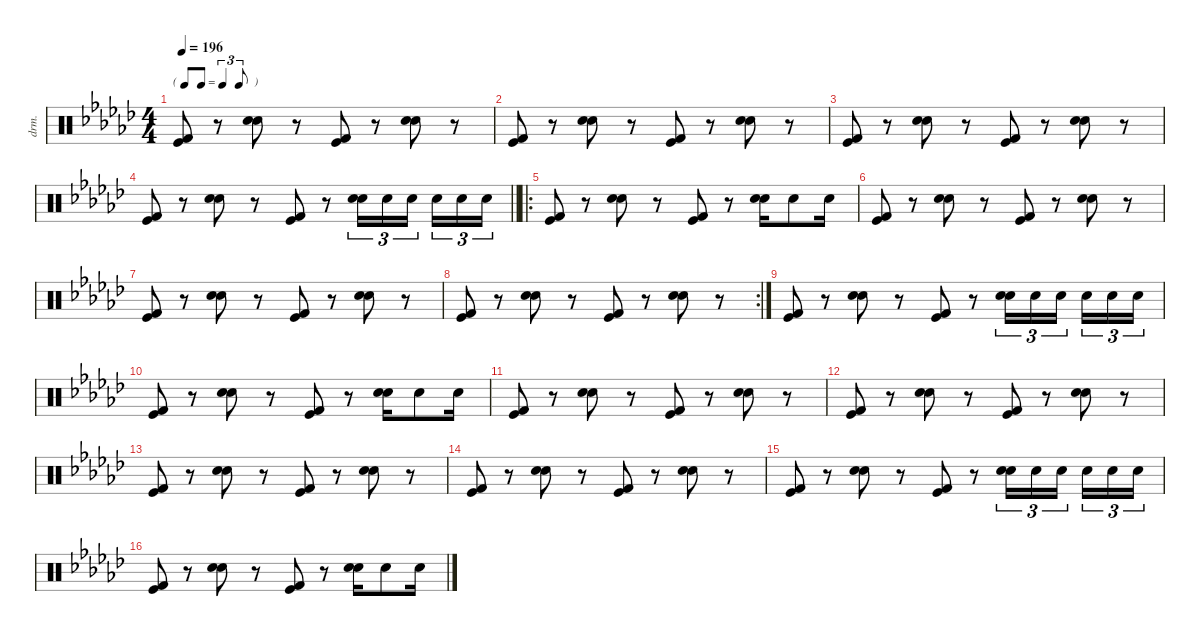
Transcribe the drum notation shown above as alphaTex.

\defaultSystemsLayout 4
\hideDynamics
\bracketExtendMode nobrackets
\otherSystemsTrackNameOrientation horizontal
\track ("Percussions" "drm.") {defaultSystemsLayout 4 instrument percussion}
\staff {score}
\articulation defaults
\ts (4 4)
\tf triplet8th
\tempo 196
\clef neutral
\ks gb
("Kick (hit) 2"{acc forcenatural} "Kick (hit)"{acc forcenatural}).8{dy f beam Up} r.8{beam Up} ("Snare (hit) 2"{acc forcenatural} "Snare (hit) 2"{acc forcenatural}).8{beam Down} r.8{beam Down} ("Kick (hit) 2"{acc forcenatural} "Kick (hit)"{acc forcenatural}).8{beam Up} r.8{beam Up} ("Snare (hit) 2"{acc forcenatural} "Snare (hit) 2"{acc forcenatural}).8{beam Down} r.8{beam Down} |
("Kick (hit) 2"{acc forcenatural} "Kick (hit)"{acc forcenatural}).8{beam Up} r.8{beam Up} ("Snare (hit) 2"{acc forcenatural} "Snare (hit) 2"{acc forcenatural}).8{beam Down} r.8{beam Down} ("Kick (hit) 2"{acc forcenatural} "Kick (hit)"{acc forcenatural}).8{beam Up} r.8{beam Up} ("Snare (hit) 2"{acc forcenatural} "Snare (hit) 2"{acc forcenatural}).8{beam Down} r.8{beam Down} |
("Kick (hit) 2"{acc forcenatural} "Kick (hit)"{acc forcenatural}).8{beam Up} r.8{beam Up} ("Snare (hit) 2"{acc forcenatural} "Snare (hit) 2"{acc forcenatural}).8{beam Down} r.8{beam Down} ("Kick (hit) 2"{acc forcenatural} "Kick (hit)"{acc forcenatural}).8{beam Up} r.8{beam Up} ("Snare (hit) 2"{acc forcenatural} "Snare (hit) 2"{acc forcenatural}).8{beam Down} r.8{beam Down} |
\barLineRight lightlight
("Kick (hit) 2"{acc forcenatural} "Kick (hit)"{acc forcenatural}).8{beam Up} r.8{beam Up} ("Snare (hit) 2"{acc forcenatural} "Snare (hit) 2"{acc forcenatural}).8{beam Down} r.8{beam Down} ("Kick (hit) 2"{acc forcenatural} "Kick (hit)"{acc forcenatural}).8{beam Up} r.8{beam Up} ("Hand Clap (hit)"{acc forcenatural} "Snare (hit) 2"{acc forcenatural}).16{tu (3 2) beam Down} "Hand Clap (hit)"{acc forcenatural}.16{tu (3 2) beam Down} "Hand Clap (hit)"{acc forcenatural}.16{tu (3 2) beam Down} "Hand Clap (hit)"{acc forcenatural}.16{tu (3 2) beam Down} "Hand Clap (hit)"{acc forcenatural}.16{tu (3 2) beam Down} "Hand Clap (hit)"{acc forcenatural}.16{tu (3 2) beam Down} |
\ro
("Kick (hit) 2"{acc forcenatural} "Kick (hit)"{acc forcenatural}).8{beam Up} r.8{beam Up} ("Snare (hit) 2"{acc forcenatural} "Snare (hit) 2"{acc forcenatural}).8{beam Down} r.8{beam Down} ("Kick (hit) 2"{acc forcenatural} "Kick (hit)"{acc forcenatural}).8{beam Up} r.8{beam Up} ("Snare (hit) 2"{acc forcenatural} "Snare (hit) 2"{acc forcenatural}).16{beam Down} "Hand Clap (hit)"{acc forcenatural}.8{beam Down} "Hand Clap (hit)"{acc forcenatural}.16{beam Down} |
("Kick (hit) 2"{acc forcenatural} "Kick (hit)"{acc forcenatural}).8{beam Up} r.8{beam Up} ("Snare (hit) 2"{acc forcenatural} "Snare (hit) 2"{acc forcenatural}).8{beam Down} r.8{beam Down} ("Kick (hit) 2"{acc forcenatural} "Kick (hit)"{acc forcenatural}).8{beam Up} r.8{beam Up} ("Snare (hit) 2"{acc forcenatural} "Snare (hit) 2"{acc forcenatural}).8{beam Down} r.8{beam Down} |
("Kick (hit) 2"{acc forcenatural} "Kick (hit)"{acc forcenatural}).8{beam Up} r.8{beam Up} ("Snare (hit) 2"{acc forcenatural} "Snare (hit) 2"{acc forcenatural}).8{beam Down} r.8{beam Down} ("Kick (hit) 2"{acc forcenatural} "Kick (hit)"{acc forcenatural}).8{beam Up} r.8{beam Up} ("Snare (hit) 2"{acc forcenatural} "Snare (hit) 2"{acc forcenatural}).8{beam Down} r.8{beam Down} |
\rc 2
("Kick (hit) 2"{acc forcenatural} "Kick (hit)"{acc forcenatural}).8{beam Up} r.8{beam Up} ("Snare (hit) 2"{acc forcenatural} "Snare (hit) 2"{acc forcenatural}).8{beam Down} r.8{beam Down} ("Kick (hit) 2"{acc forcenatural} "Kick (hit)"{acc forcenatural}).8{beam Up} r.8{beam Up} ("Snare (hit) 2"{acc forcenatural} "Snare (hit) 2"{acc forcenatural}).8{beam Down} r.8{beam Down} |
("Kick (hit) 2"{acc forcenatural} "Kick (hit)"{acc forcenatural}).8{beam Up} r.8{beam Up} ("Snare (hit) 2"{acc forcenatural} "Snare (hit) 2"{acc forcenatural}).8{beam Down} r.8{beam Down} ("Kick (hit) 2"{acc forcenatural} "Kick (hit)"{acc forcenatural}).8{beam Up} r.8{beam Up} ("Hand Clap (hit)"{acc forcenatural} "Snare (hit) 2"{acc forcenatural}).16{tu (3 2) beam Down} "Hand Clap (hit)"{acc forcenatural}.16{tu (3 2) beam Down} "Hand Clap (hit)"{acc forcenatural}.16{tu (3 2) beam Down} "Hand Clap (hit)"{acc forcenatural}.16{tu (3 2) beam Down} "Hand Clap (hit)"{acc forcenatural}.16{tu (3 2) beam Down} "Hand Clap (hit)"{acc forcenatural}.16{tu (3 2) beam Down} |
("Kick (hit) 2"{acc forcenatural} "Kick (hit)"{acc forcenatural}).8{beam Up} r.8{beam Up} ("Snare (hit) 2"{acc forcenatural} "Snare (hit) 2"{acc forcenatural}).8{beam Down} r.8{beam Down} ("Kick (hit) 2"{acc forcenatural} "Kick (hit)"{acc forcenatural}).8{beam Up} r.8{beam Up} ("Snare (hit) 2"{acc forcenatural} "Snare (hit) 2"{acc forcenatural}).16{beam Down} "Hand Clap (hit)"{acc forcenatural}.8{beam Down} "Hand Clap (hit)"{acc forcenatural}.16{beam Down} |
("Kick (hit) 2"{acc forcenatural} "Kick (hit)"{acc forcenatural}).8{beam Up} r.8{beam Up} ("Snare (hit) 2"{acc forcenatural} "Snare (hit) 2"{acc forcenatural}).8{beam Down} r.8{beam Down} ("Kick (hit) 2"{acc forcenatural} "Kick (hit)"{acc forcenatural}).8{beam Up} r.8{beam Up} ("Snare (hit) 2"{acc forcenatural} "Snare (hit) 2"{acc forcenatural}).8{beam Down} r.8{beam Down} |
("Kick (hit) 2"{acc forcenatural} "Kick (hit)"{acc forcenatural}).8{beam Up} r.8{beam Up} ("Snare (hit) 2"{acc forcenatural} "Snare (hit) 2"{acc forcenatural}).8{beam Down} r.8{beam Down} ("Kick (hit) 2"{acc forcenatural} "Kick (hit)"{acc forcenatural}).8{beam Up} r.8{beam Up} ("Snare (hit) 2"{acc forcenatural} "Snare (hit) 2"{acc forcenatural}).8{beam Down} r.8{beam Down} |
("Kick (hit) 2"{acc forcenatural} "Kick (hit)"{acc forcenatural}).8{beam Up} r.8{beam Up} ("Snare (hit) 2"{acc forcenatural} "Snare (hit) 2"{acc forcenatural}).8{beam Down} r.8{beam Down} ("Kick (hit) 2"{acc forcenatural} "Kick (hit)"{acc forcenatural}).8{beam Up} r.8{beam Up} ("Snare (hit) 2"{acc forcenatural} "Snare (hit) 2"{acc forcenatural}).8{beam Down} r.8{beam Down} |
("Kick (hit) 2"{acc forcenatural} "Kick (hit)"{acc forcenatural}).8{beam Up} r.8{beam Up} ("Snare (hit) 2"{acc forcenatural} "Snare (hit) 2"{acc forcenatural}).8{beam Down} r.8{beam Down} ("Kick (hit) 2"{acc forcenatural} "Kick (hit)"{acc forcenatural}).8{beam Up} r.8{beam Up} ("Snare (hit) 2"{acc forcenatural} "Snare (hit) 2"{acc forcenatural}).8{beam Down} r.8{beam Down} |
("Kick (hit) 2"{acc forcenatural} "Kick (hit)"{acc forcenatural}).8{beam Up} r.8{beam Up} ("Snare (hit) 2"{acc forcenatural} "Snare (hit) 2"{acc forcenatural}).8{beam Down} r.8{beam Down} ("Kick (hit) 2"{acc forcenatural} "Kick (hit)"{acc forcenatural}).8{beam Up} r.8{beam Up} ("Hand Clap (hit)"{acc forcenatural} "Snare (hit) 2"{acc forcenatural}).16{tu (3 2) beam Down} "Hand Clap (hit)"{acc forcenatural}.16{tu (3 2) beam Down} "Hand Clap (hit)"{acc forcenatural}.16{tu (3 2) beam Down} "Hand Clap (hit)"{acc forcenatural}.16{tu (3 2) beam Down} "Hand Clap (hit)"{acc forcenatural}.16{tu (3 2) beam Down} "Hand Clap (hit)"{acc forcenatural}.16{tu (3 2) beam Down} |
("Kick (hit) 2"{acc forcenatural} "Kick (hit)"{acc forcenatural}).8{beam Up} r.8{beam Up} ("Snare (hit) 2"{acc forcenatural} "Snare (hit) 2"{acc forcenatural}).8{beam Down} r.8{beam Down} ("Kick (hit) 2"{acc forcenatural} "Kick (hit)"{acc forcenatural}).8{beam Up} r.8{beam Up} ("Snare (hit) 2"{acc forcenatural} "Snare (hit) 2"{acc forcenatural}).16{beam Down} "Hand Clap (hit)"{acc forcenatural}.8{beam Down} "Hand Clap (hit)"{acc forcenatural}.16{beam Down}
